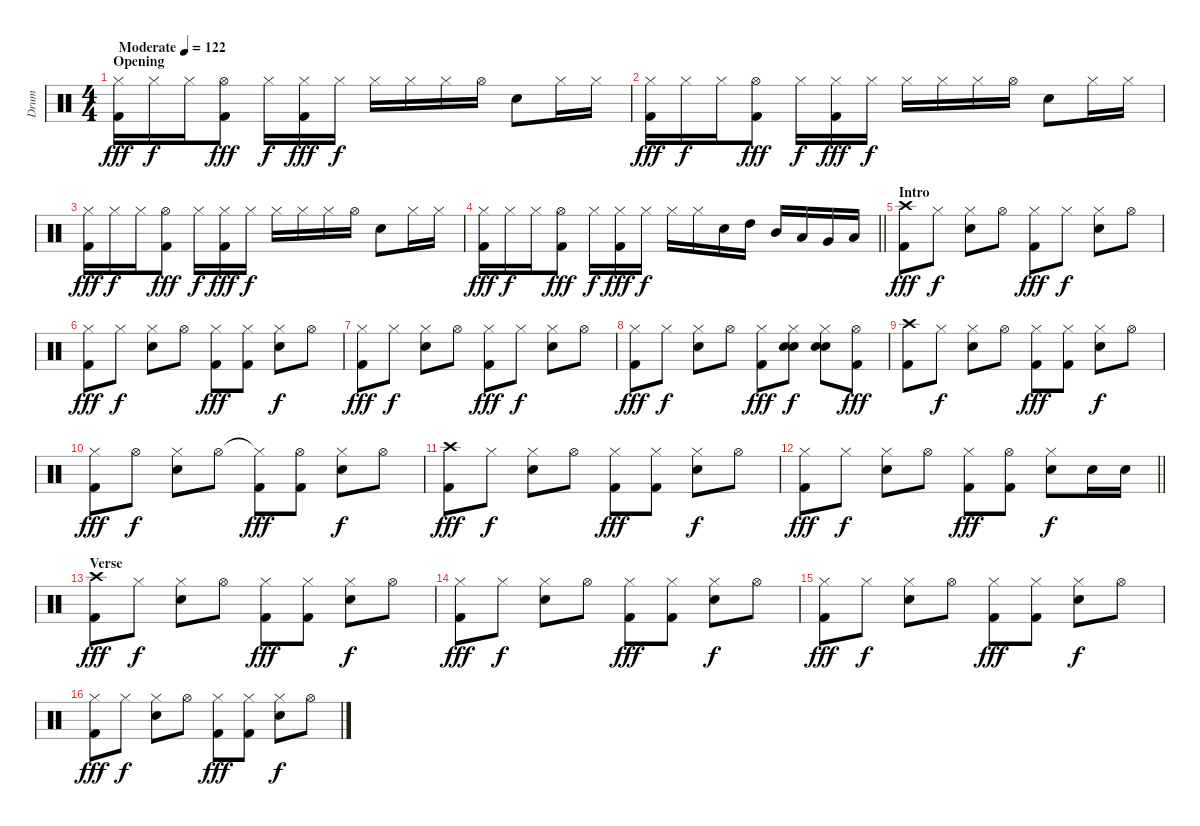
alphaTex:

\track ("Drum" "Drum") {instrument percussion}
\staff {score}
\articulation defaults
\ts (4 4)
\section ("" "Opening")
\tempo (122 "Moderate")
\clef neutral
\ks c
("Hi-Hat (closed)" "Kick (hit) 2").16{dy fff} "Hi-Hat (closed)".16{dy f} "Hi-Hat (closed)".16 ("Hi-Hat (open)" "Kick (hit) 2").8{dy fff} "Hi-Hat (closed)".16{dy f} ("Hi-Hat (closed)" "Kick (hit) 2").16{dy fff} "Hi-Hat (closed)".16{dy f} "Hi-Hat (closed)".16 "Hi-Hat (closed)".16 "Hi-Hat (closed)".16 "Hi-Hat (open)".16 "Electric Snare (hit)".8 "Hi-Hat (closed)".16 "Hi-Hat (closed)".16 |
("Hi-Hat (closed)" "Kick (hit) 2").16{dy fff} "Hi-Hat (closed)".16{dy f} "Hi-Hat (closed)".16 ("Hi-Hat (open)" "Kick (hit) 2").8{dy fff} "Hi-Hat (closed)".16{dy f} ("Hi-Hat (closed)" "Kick (hit) 2").16{dy fff} "Hi-Hat (closed)".16{dy f} "Hi-Hat (closed)".16 "Hi-Hat (closed)".16 "Hi-Hat (closed)".16 "Hi-Hat (open)".16 "Electric Snare (hit)".8 "Hi-Hat (closed)".16 "Hi-Hat (closed)".16 |
("Hi-Hat (closed)" "Kick (hit) 2").16{dy fff} "Hi-Hat (closed)".16{dy f} "Hi-Hat (closed)".16 ("Hi-Hat (open)" "Kick (hit) 2").8{dy fff} "Hi-Hat (closed)".16{dy f} ("Hi-Hat (closed)" "Kick (hit) 2").16{dy fff} "Hi-Hat (closed)".16{dy f} "Hi-Hat (closed)".16 "Hi-Hat (closed)".16 "Hi-Hat (closed)".16 "Hi-Hat (open)".16 "Electric Snare (hit)".8 "Hi-Hat (closed)".16 "Hi-Hat (closed)".16 |
\barLineRight lightlight
("Hi-Hat (closed)" "Kick (hit) 2").16{dy fff} "Hi-Hat (closed)".16{dy f} "Hi-Hat (closed)".16 ("Hi-Hat (open)" "Kick (hit) 2").8{dy fff} "Hi-Hat (closed)".16{dy f} ("Hi-Hat (closed)" "Kick (hit) 2").16{dy fff} "Hi-Hat (closed)".16{dy f} "Hi-Hat (closed)".16 "Hi-Hat (closed)".16 "Electric Snare (hit)".16 "High Tom (hit)".16 "Mid Tom (hit)".16 "Low Tom (hit)".16 "Very Low Tom (hit)".16 "Low Floor Tom (hit)".16 |
\section ("" "Intro")
("Crash high (hit)" "Kick (hit) 2").8{dy fff} "Hi-Hat (closed)".8{dy f} ("Hi-Hat (closed)" "Electric Snare (hit)").8 "Hi-Hat (open)".8 ("Hi-Hat (closed)" "Kick (hit) 2").8{dy fff} "Hi-Hat (closed)".8{dy f} ("Hi-Hat (closed)" "Electric Snare (hit)").8 "Hi-Hat (open)".8 |
("Hi-Hat (closed)" "Kick (hit) 2").8{dy fff} "Hi-Hat (closed)".8{dy f} ("Hi-Hat (closed)" "Electric Snare (hit)").8 "Hi-Hat (open)".8 ("Hi-Hat (closed)" "Kick (hit) 2").8{dy fff} ("Hi-Hat (closed)" "Kick (hit) 2").8 ("Hi-Hat (closed)" "Electric Snare (hit)").8{dy f} "Hi-Hat (open)".8 |
("Hi-Hat (closed)" "Kick (hit) 2").8{dy fff} "Hi-Hat (closed)".8{dy f} ("Hi-Hat (closed)" "Electric Snare (hit)").8 "Hi-Hat (open)".8 ("Hi-Hat (closed)" "Kick (hit) 2").8{dy fff} "Hi-Hat (closed)".8{dy f} ("Hi-Hat (closed)" "Electric Snare (hit)").8 "Hi-Hat (open)".8 |
("Hi-Hat (closed)" "Kick (hit) 2").8{dy fff} "Hi-Hat (closed)".8{dy f} ("Hi-Hat (closed)" "Electric Snare (hit)").8 "Hi-Hat (open)".8 ("Hi-Hat (closed)" "Kick (hit) 2").8{dy fff} ("Hi-Hat (closed)" "Hand Clap (hit)" "Electric Snare (hit)").8{dy f} ("Hi-Hat (closed)" "Hand Clap (hit)" "Electric Snare (hit)").8 ("Hi-Hat (open)" "Kick (hit) 2").8{dy fff} |
("Crash high (hit)" "Kick (hit) 2").8 "Hi-Hat (closed)".8{dy f} ("Hi-Hat (closed)" "Electric Snare (hit)").8 "Hi-Hat (open)".8 ("Hi-Hat (closed)" "Kick (hit) 2").8{dy fff} ("Hi-Hat (closed)" "Kick (hit) 2").8 ("Hi-Hat (closed)" "Electric Snare (hit)").8{dy f} "Hi-Hat (open)".8 |
("Hi-Hat (closed)" "Kick (hit) 2").8{dy fff} "Hi-Hat (open)".8{dy f} ("Hi-Hat (closed)" "Electric Snare (hit)").8 "Hi-Hat (open)".8 ("Hi-Hat (closed)"{t} "Kick (hit) 2").8{dy fff} ("Hi-Hat (open)" "Kick (hit) 2").8 ("Hi-Hat (closed)" "Electric Snare (hit)").8{dy f} "Hi-Hat (open)".8 |
("Crash high (hit)" "Kick (hit) 2").8{dy fff} "Hi-Hat (closed)".8{dy f} ("Hi-Hat (closed)" "Electric Snare (hit)").8 "Hi-Hat (open)".8 ("Hi-Hat (closed)" "Kick (hit) 2").8{dy fff} ("Hi-Hat (closed)" "Kick (hit) 2").8 ("Hi-Hat (closed)" "Electric Snare (hit)").8{dy f} "Hi-Hat (open)".8 |
\barLineRight lightlight
("Hi-Hat (closed)" "Kick (hit) 2").8{dy fff} "Hi-Hat (closed)".8{dy f} ("Hi-Hat (closed)" "Electric Snare (hit)").8 "Hi-Hat (open)".8 ("Hi-Hat (closed)" "Kick (hit) 2").8{dy fff} ("Hi-Hat (open)" "Kick (hit) 2").8 ("Hi-Hat (closed)" "Electric Snare (hit)").8{dy f} "Electric Snare (hit)".16 "Electric Snare (hit)".16 |
\section ("" "Verse")
("Crash high (hit)" "Kick (hit) 2").8{dy fff} "Hi-Hat (closed)".8{dy f} ("Hi-Hat (closed)" "Electric Snare (hit)").8 "Hi-Hat (open)".8 ("Hi-Hat (closed)" "Kick (hit) 2").8{dy fff} ("Hi-Hat (closed)" "Kick (hit) 2").8 ("Hi-Hat (closed)" "Electric Snare (hit)").8{dy f} "Hi-Hat (open)".8 |
("Hi-Hat (closed)" "Kick (hit) 2").8{dy fff} "Hi-Hat (closed)".8{dy f} ("Hi-Hat (closed)" "Electric Snare (hit)").8 "Hi-Hat (open)".8 ("Hi-Hat (closed)" "Kick (hit) 2").8{dy fff} ("Hi-Hat (closed)" "Kick (hit) 2").8 ("Hi-Hat (closed)" "Electric Snare (hit)").8{dy f} "Hi-Hat (open)".8 |
("Hi-Hat (closed)" "Kick (hit) 2").8{dy fff} "Hi-Hat (closed)".8{dy f} ("Hi-Hat (closed)" "Electric Snare (hit)").8 "Hi-Hat (open)".8 ("Hi-Hat (closed)" "Kick (hit) 2").8{dy fff} ("Hi-Hat (closed)" "Kick (hit) 2").8 ("Hi-Hat (closed)" "Electric Snare (hit)").8{dy f} "Hi-Hat (open)".8 |
("Hi-Hat (closed)" "Kick (hit) 2").8{dy fff} "Hi-Hat (closed)".8{dy f} ("Hi-Hat (closed)" "Electric Snare (hit)").8 "Hi-Hat (open)".8 ("Hi-Hat (closed)" "Kick (hit) 2").8{dy fff} ("Hi-Hat (closed)" "Kick (hit) 2").8 ("Hi-Hat (closed)" "Electric Snare (hit)").8{dy f} "Hi-Hat (open)".8
